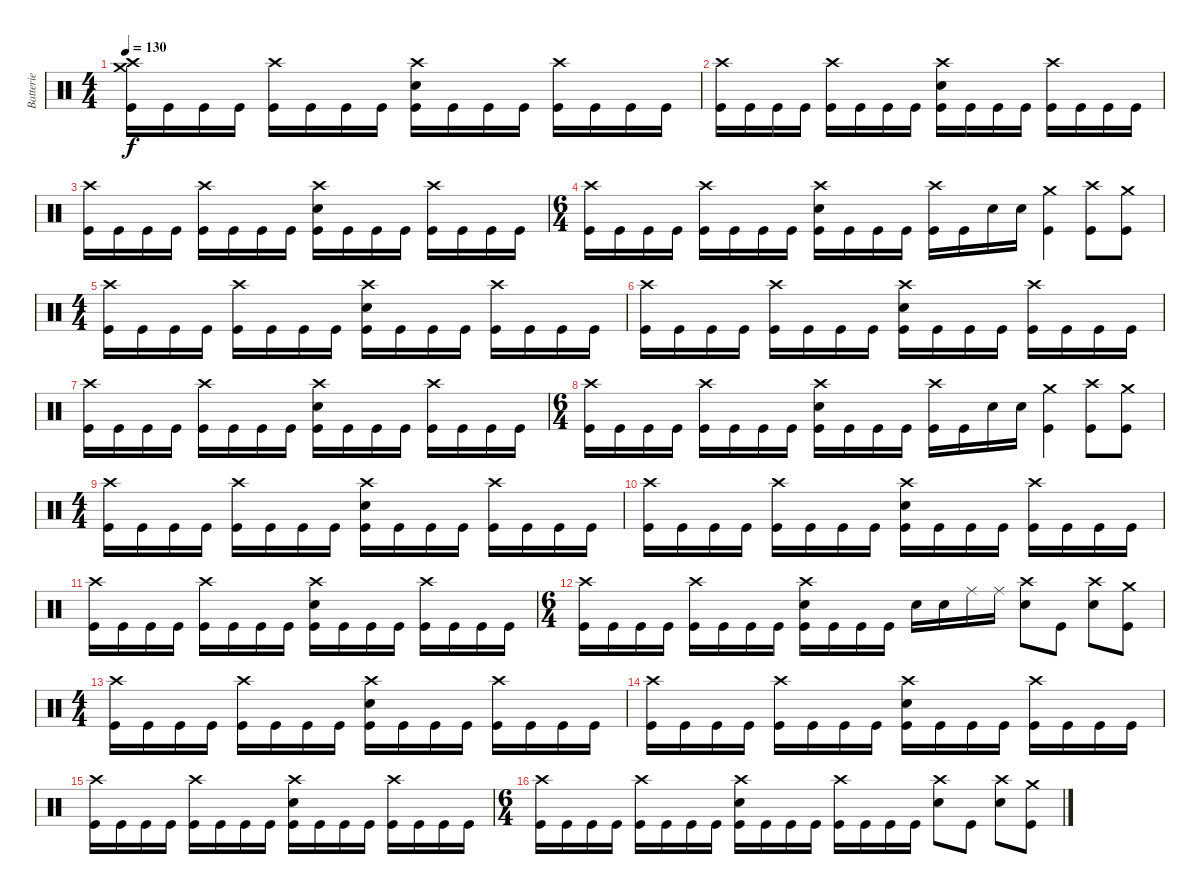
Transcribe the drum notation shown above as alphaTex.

\track ("Batterie" "Batterie") {instrument percussion}
\staff {score}
\articulation defaults
\ts (4 4)
\tempo 130
\clef neutral
\ks c
("Crash medium (hit)" "Crash high (hit)" "Kick (hit)").16{dy f} "Kick (hit)".16 "Kick (hit)".16 "Kick (hit)".16 ("Crash high (hit)" "Kick (hit)").16 "Kick (hit)".16 "Kick (hit)".16 "Kick (hit)".16 ("Crash high (hit)" "Electric Snare (hit)" "Kick (hit)").16 "Kick (hit)".16 "Kick (hit)".16 "Kick (hit)".16 ("Crash high (hit)" "Kick (hit)").16 "Kick (hit)".16 "Kick (hit)".16 "Kick (hit)".16 |
("Crash high (hit)" "Kick (hit)").16 "Kick (hit)".16 "Kick (hit)".16 "Kick (hit)".16 ("Crash high (hit)" "Kick (hit)").16 "Kick (hit)".16 "Kick (hit)".16 "Kick (hit)".16 ("Crash high (hit)" "Electric Snare (hit)" "Kick (hit)").16 "Kick (hit)".16 "Kick (hit)".16 "Kick (hit)".16 ("Crash high (hit)" "Kick (hit)").16 "Kick (hit)".16 "Kick (hit)".16 "Kick (hit)".16 |
("Crash high (hit)" "Kick (hit)").16 "Kick (hit)".16 "Kick (hit)".16 "Kick (hit)".16 ("Crash high (hit)" "Kick (hit)").16 "Kick (hit)".16 "Kick (hit)".16 "Kick (hit)".16 ("Crash high (hit)" "Electric Snare (hit)" "Kick (hit)").16 "Kick (hit)".16 "Kick (hit)".16 "Kick (hit)".16 ("Crash high (hit)" "Kick (hit)").16 "Kick (hit)".16 "Kick (hit)".16 "Kick (hit)".16 |
\ts (6 4)
("Crash high (hit)" "Kick (hit)").16 "Kick (hit)".16 "Kick (hit)".16 "Kick (hit)".16 ("Crash high (hit)" "Kick (hit)").16 "Kick (hit)".16 "Kick (hit)".16 "Kick (hit)".16 ("Crash high (hit)" "Electric Snare (hit)" "Kick (hit)").16 "Kick (hit)".16 "Kick (hit)".16 "Kick (hit)".16 ("Crash high (hit)" "Kick (hit)").16 "Kick (hit)".16 "Electric Snare (hit)".16 "Electric Snare (hit)".16 ("Crash medium (hit)" "Kick (hit)").4 ("Crash high (hit)" "Kick (hit)").8 ("Crash medium (hit)" "Kick (hit)").8 |
\ts (4 4)
("Crash high (hit)" "Kick (hit)").16 "Kick (hit)".16 "Kick (hit)".16 "Kick (hit)".16 ("Crash high (hit)" "Kick (hit)").16 "Kick (hit)".16 "Kick (hit)".16 "Kick (hit)".16 ("Crash high (hit)" "Electric Snare (hit)" "Kick (hit)").16 "Kick (hit)".16 "Kick (hit)".16 "Kick (hit)".16 ("Crash high (hit)" "Kick (hit)").16 "Kick (hit)".16 "Kick (hit)".16 "Kick (hit)".16 |
("Crash high (hit)" "Kick (hit)").16 "Kick (hit)".16 "Kick (hit)".16 "Kick (hit)".16 ("Crash high (hit)" "Kick (hit)").16 "Kick (hit)".16 "Kick (hit)".16 "Kick (hit)".16 ("Crash high (hit)" "Electric Snare (hit)" "Kick (hit)").16 "Kick (hit)".16 "Kick (hit)".16 "Kick (hit)".16 ("Crash high (hit)" "Kick (hit)").16 "Kick (hit)".16 "Kick (hit)".16 "Kick (hit)".16 |
("Crash high (hit)" "Kick (hit)").16 "Kick (hit)".16 "Kick (hit)".16 "Kick (hit)".16 ("Crash high (hit)" "Kick (hit)").16 "Kick (hit)".16 "Kick (hit)".16 "Kick (hit)".16 ("Crash high (hit)" "Electric Snare (hit)" "Kick (hit)").16 "Kick (hit)".16 "Kick (hit)".16 "Kick (hit)".16 ("Crash high (hit)" "Kick (hit)").16 "Kick (hit)".16 "Kick (hit)".16 "Kick (hit)".16 |
\ts (6 4)
("Crash high (hit)" "Kick (hit)").16 "Kick (hit)".16 "Kick (hit)".16 "Kick (hit)".16 ("Crash high (hit)" "Kick (hit)").16 "Kick (hit)".16 "Kick (hit)".16 "Kick (hit)".16 ("Crash high (hit)" "Electric Snare (hit)" "Kick (hit)").16 "Kick (hit)".16 "Kick (hit)".16 "Kick (hit)".16 ("Crash high (hit)" "Kick (hit)").16 "Kick (hit)".16 "Electric Snare (hit)".16 "Electric Snare (hit)".16 ("Crash medium (hit)" "Kick (hit)").4 ("Crash high (hit)" "Kick (hit)").8 ("Crash medium (hit)" "Kick (hit)").8 |
\ts (4 4)
("Crash high (hit)" "Kick (hit)").16 "Kick (hit)".16 "Kick (hit)".16 "Kick (hit)".16 ("Crash high (hit)" "Kick (hit)").16 "Kick (hit)".16 "Kick (hit)".16 "Kick (hit)".16 ("Crash high (hit)" "Electric Snare (hit)" "Kick (hit)").16 "Kick (hit)".16 "Kick (hit)".16 "Kick (hit)".16 ("Crash high (hit)" "Kick (hit)").16 "Kick (hit)".16 "Kick (hit)".16 "Kick (hit)".16 |
("Crash high (hit)" "Kick (hit)").16 "Kick (hit)".16 "Kick (hit)".16 "Kick (hit)".16 ("Crash high (hit)" "Kick (hit)").16 "Kick (hit)".16 "Kick (hit)".16 "Kick (hit)".16 ("Crash high (hit)" "Electric Snare (hit)" "Kick (hit)").16 "Kick (hit)".16 "Kick (hit)".16 "Kick (hit)".16 ("Crash high (hit)" "Kick (hit)").16 "Kick (hit)".16 "Kick (hit)".16 "Kick (hit)".16 |
("Crash high (hit)" "Kick (hit)").16 "Kick (hit)".16 "Kick (hit)".16 "Kick (hit)".16 ("Crash high (hit)" "Kick (hit)").16 "Kick (hit)".16 "Kick (hit)".16 "Kick (hit)".16 ("Crash high (hit)" "Electric Snare (hit)" "Kick (hit)").16 "Kick (hit)".16 "Kick (hit)".16 "Kick (hit)".16 ("Crash high (hit)" "Kick (hit)").16 "Kick (hit)".16 "Kick (hit)".16 "Kick (hit)".16 |
\ts (6 4)
("Crash high (hit)" "Kick (hit)").16 "Kick (hit)".16 "Kick (hit)".16 "Kick (hit)".16 ("Crash high (hit)" "Kick (hit)").16 "Kick (hit)".16 "Kick (hit)".16 "Kick (hit)".16 ("Crash high (hit)" "Electric Snare (hit)" "Kick (hit)").16 "Kick (hit)".16 "Kick (hit)".16 "Kick (hit)".16 "Electric Snare (hit)".16 "Electric Snare (hit)".16 "Ride (middle)".16 "Ride (middle)".16 ("Crash high (hit)" "Electric Snare (hit)").8 "Kick (hit)".8 ("Crash high (hit)" "Electric Snare (hit)").8 ("Crash medium (hit)" "Kick (hit)").8 |
\ts (4 4)
("Crash high (hit)" "Kick (hit)").16 "Kick (hit)".16 "Kick (hit)".16 "Kick (hit)".16 ("Crash high (hit)" "Kick (hit)").16 "Kick (hit)".16 "Kick (hit)".16 "Kick (hit)".16 ("Crash high (hit)" "Electric Snare (hit)" "Kick (hit)").16 "Kick (hit)".16 "Kick (hit)".16 "Kick (hit)".16 ("Crash high (hit)" "Kick (hit)").16 "Kick (hit)".16 "Kick (hit)".16 "Kick (hit)".16 |
("Crash high (hit)" "Kick (hit)").16 "Kick (hit)".16 "Kick (hit)".16 "Kick (hit)".16 ("Crash high (hit)" "Kick (hit)").16 "Kick (hit)".16 "Kick (hit)".16 "Kick (hit)".16 ("Crash high (hit)" "Electric Snare (hit)" "Kick (hit)").16 "Kick (hit)".16 "Kick (hit)".16 "Kick (hit)".16 ("Crash high (hit)" "Kick (hit)").16 "Kick (hit)".16 "Kick (hit)".16 "Kick (hit)".16 |
("Crash high (hit)" "Kick (hit)").16 "Kick (hit)".16 "Kick (hit)".16 "Kick (hit)".16 ("Crash high (hit)" "Kick (hit)").16 "Kick (hit)".16 "Kick (hit)".16 "Kick (hit)".16 ("Crash high (hit)" "Electric Snare (hit)" "Kick (hit)").16 "Kick (hit)".16 "Kick (hit)".16 "Kick (hit)".16 ("Crash high (hit)" "Kick (hit)").16 "Kick (hit)".16 "Kick (hit)".16 "Kick (hit)".16 |
\ts (6 4)
("Crash high (hit)" "Kick (hit)").16 "Kick (hit)".16 "Kick (hit)".16 "Kick (hit)".16 ("Crash high (hit)" "Kick (hit)").16 "Kick (hit)".16 "Kick (hit)".16 "Kick (hit)".16 ("Crash high (hit)" "Electric Snare (hit)" "Kick (hit)").16 "Kick (hit)".16 "Kick (hit)".16 "Kick (hit)".16 ("Crash high (hit)" "Kick (hit)").16 "Kick (hit)".16 "Kick (hit)".16 "Kick (hit)".16 ("Crash high (hit)" "Electric Snare (hit)").8 "Kick (hit)".8 ("Crash high (hit)" "Electric Snare (hit)").8 ("Crash medium (hit)" "Kick (hit)").8
